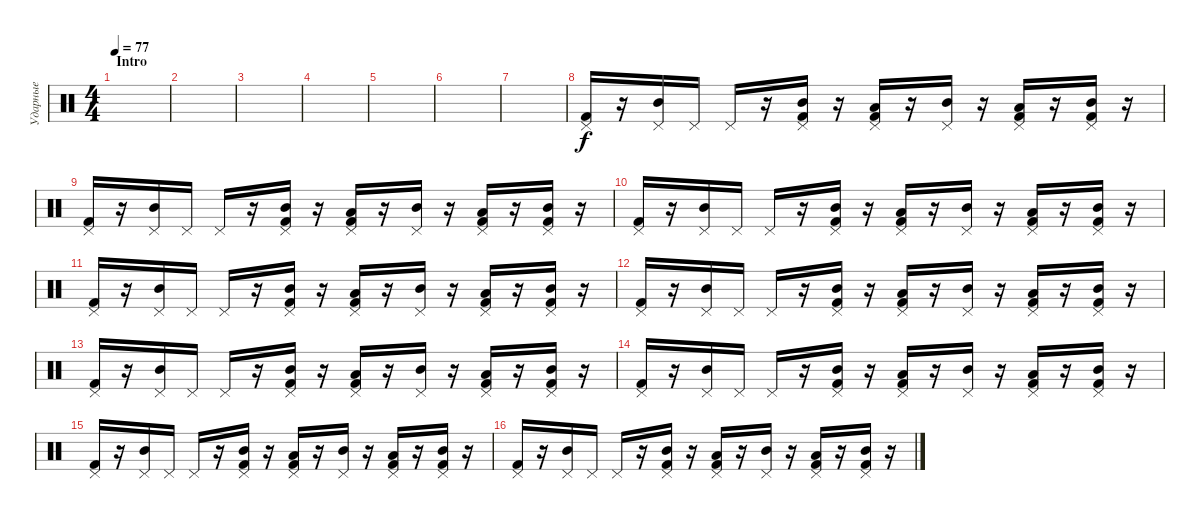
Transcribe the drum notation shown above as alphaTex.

\track ("Ударные" "Ударные") {instrument percussion}
\staff {score}
\articulation defaults
\ts (4 4)
\section ("" "Intro")
\tempo 77
\clef neutral
\ks c
|
|
|
|
|
|
|
("Pedal Hi-Hat (hit)" "Kick (hit) 2").16{volume 0} r.16 ("Pedal Hi-Hat (hit)" "Mid Tom (hit)").16{volume 13} "Pedal Hi-Hat (hit)".16 "Pedal Hi-Hat (hit)".16 r.16 ("Pedal Hi-Hat (hit)" "Mid Tom (hit)" "Kick (hit) 2").16 r.16 ("Pedal Hi-Hat (hit)" "Low Tom (hit)" "Kick (hit) 2").16 r.16 ("Pedal Hi-Hat (hit)" "Mid Tom (hit)").16 r.16 ("Pedal Hi-Hat (hit)" "Low Tom (hit)" "Kick (hit) 2").16 r.16 ("Pedal Hi-Hat (hit)" "Mid Tom (hit)" "Kick (hit) 2").16 r.16 |
("Pedal Hi-Hat (hit)" "Kick (hit) 2").16 r.16 ("Pedal Hi-Hat (hit)" "Mid Tom (hit)").16 "Pedal Hi-Hat (hit)".16 "Pedal Hi-Hat (hit)".16 r.16 ("Pedal Hi-Hat (hit)" "Mid Tom (hit)" "Kick (hit) 2").16 r.16 ("Pedal Hi-Hat (hit)" "Low Tom (hit)" "Kick (hit) 2").16 r.16 ("Pedal Hi-Hat (hit)" "Mid Tom (hit)").16 r.16 ("Pedal Hi-Hat (hit)" "Low Tom (hit)" "Kick (hit) 2").16 r.16 ("Pedal Hi-Hat (hit)" "Mid Tom (hit)" "Kick (hit) 2").16 r.16 |
("Pedal Hi-Hat (hit)" "Kick (hit) 2").16 r.16 ("Pedal Hi-Hat (hit)" "Mid Tom (hit)").16 "Pedal Hi-Hat (hit)".16 "Pedal Hi-Hat (hit)".16 r.16 ("Pedal Hi-Hat (hit)" "Mid Tom (hit)" "Kick (hit) 2").16 r.16 ("Pedal Hi-Hat (hit)" "Low Tom (hit)" "Kick (hit) 2").16 r.16 ("Pedal Hi-Hat (hit)" "Mid Tom (hit)").16 r.16 ("Pedal Hi-Hat (hit)" "Low Tom (hit)" "Kick (hit) 2").16 r.16 ("Pedal Hi-Hat (hit)" "Mid Tom (hit)" "Kick (hit) 2").16 r.16 |
("Pedal Hi-Hat (hit)" "Kick (hit) 2").16 r.16 ("Pedal Hi-Hat (hit)" "Mid Tom (hit)").16 "Pedal Hi-Hat (hit)".16 "Pedal Hi-Hat (hit)".16 r.16 ("Pedal Hi-Hat (hit)" "Mid Tom (hit)" "Kick (hit) 2").16 r.16 ("Pedal Hi-Hat (hit)" "Low Tom (hit)" "Kick (hit) 2").16 r.16 ("Pedal Hi-Hat (hit)" "Mid Tom (hit)").16 r.16 ("Pedal Hi-Hat (hit)" "Low Tom (hit)" "Kick (hit) 2").16 r.16 ("Pedal Hi-Hat (hit)" "Mid Tom (hit)" "Kick (hit) 2").16 r.16 |
("Pedal Hi-Hat (hit)" "Kick (hit) 2").16 r.16 ("Pedal Hi-Hat (hit)" "Mid Tom (hit)").16 "Pedal Hi-Hat (hit)".16 "Pedal Hi-Hat (hit)".16 r.16 ("Pedal Hi-Hat (hit)" "Mid Tom (hit)" "Kick (hit) 2").16 r.16 ("Pedal Hi-Hat (hit)" "Low Tom (hit)" "Kick (hit) 2").16 r.16 ("Pedal Hi-Hat (hit)" "Mid Tom (hit)").16 r.16 ("Pedal Hi-Hat (hit)" "Low Tom (hit)" "Kick (hit) 2").16 r.16 ("Pedal Hi-Hat (hit)" "Mid Tom (hit)" "Kick (hit) 2").16 r.16 |
("Pedal Hi-Hat (hit)" "Kick (hit) 2").16 r.16 ("Pedal Hi-Hat (hit)" "Mid Tom (hit)").16 "Pedal Hi-Hat (hit)".16 "Pedal Hi-Hat (hit)".16 r.16 ("Pedal Hi-Hat (hit)" "Mid Tom (hit)" "Kick (hit) 2").16 r.16 ("Pedal Hi-Hat (hit)" "Low Tom (hit)" "Kick (hit) 2").16 r.16 ("Pedal Hi-Hat (hit)" "Mid Tom (hit)").16 r.16 ("Pedal Hi-Hat (hit)" "Low Tom (hit)" "Kick (hit) 2").16 r.16 ("Pedal Hi-Hat (hit)" "Mid Tom (hit)" "Kick (hit) 2").16 r.16 |
("Pedal Hi-Hat (hit)" "Kick (hit) 2").16 r.16 ("Pedal Hi-Hat (hit)" "Mid Tom (hit)").16 "Pedal Hi-Hat (hit)".16 "Pedal Hi-Hat (hit)".16 r.16 ("Pedal Hi-Hat (hit)" "Mid Tom (hit)" "Kick (hit) 2").16 r.16 ("Pedal Hi-Hat (hit)" "Low Tom (hit)" "Kick (hit) 2").16 r.16 ("Pedal Hi-Hat (hit)" "Mid Tom (hit)").16 r.16 ("Pedal Hi-Hat (hit)" "Low Tom (hit)" "Kick (hit) 2").16 r.16 ("Pedal Hi-Hat (hit)" "Mid Tom (hit)" "Kick (hit) 2").16 r.16 |
("Pedal Hi-Hat (hit)" "Kick (hit) 2").16 r.16 ("Pedal Hi-Hat (hit)" "Mid Tom (hit)").16 "Pedal Hi-Hat (hit)".16 "Pedal Hi-Hat (hit)".16 r.16 ("Pedal Hi-Hat (hit)" "Mid Tom (hit)" "Kick (hit) 2").16 r.16 ("Pedal Hi-Hat (hit)" "Low Tom (hit)" "Kick (hit) 2").16 r.16 ("Pedal Hi-Hat (hit)" "Mid Tom (hit)").16 r.16 ("Pedal Hi-Hat (hit)" "Low Tom (hit)" "Kick (hit) 2").16 r.16 ("Pedal Hi-Hat (hit)" "Mid Tom (hit)" "Kick (hit) 2").16 r.16 |
("Pedal Hi-Hat (hit)" "Kick (hit) 2").16 r.16 ("Pedal Hi-Hat (hit)" "Mid Tom (hit)").16 "Pedal Hi-Hat (hit)".16 "Pedal Hi-Hat (hit)".16 r.16 ("Pedal Hi-Hat (hit)" "Mid Tom (hit)" "Kick (hit) 2").16 r.16 ("Pedal Hi-Hat (hit)" "Low Tom (hit)" "Kick (hit) 2").16 r.16 ("Pedal Hi-Hat (hit)" "Mid Tom (hit)").16 r.16 ("Pedal Hi-Hat (hit)" "Low Tom (hit)" "Kick (hit) 2").16 r.16 ("Pedal Hi-Hat (hit)" "Mid Tom (hit)" "Kick (hit) 2").16 r.16
